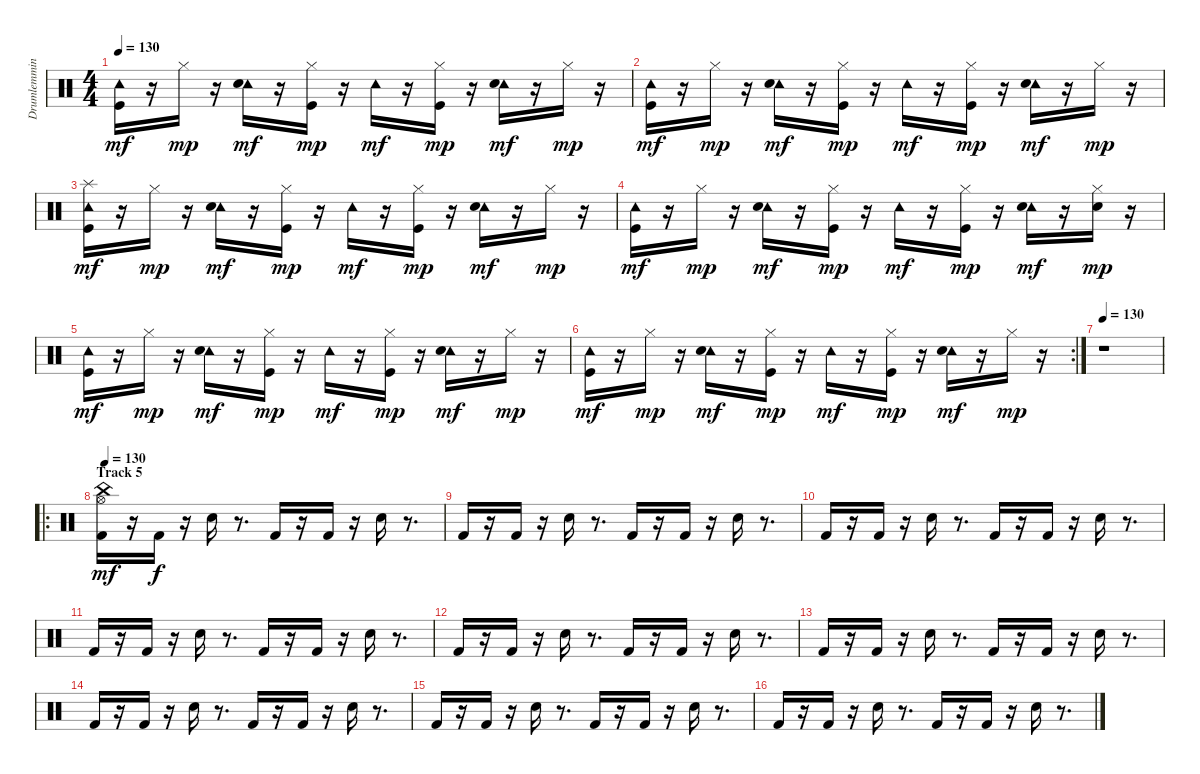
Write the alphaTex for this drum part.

\track ("Drumlemming" "Drumlemmin") {instrument percussion}
\staff {score}
\articulation defaults
\ts (4 4)
\tempo 130
\clef neutral
\ks c
("Tambourine (hit)" "Kick (hit)").16{dy mf} r.16 "Hi-Hat (closed)".16{dy mp} r.16 ("Tambourine (hit)" "Snare (hit) 2").16{dy mf} r.16 ("Kick (hit)" "Hi-Hat (closed)").16{dy mp} r.16 "Tambourine (hit)".16{dy mf} r.16 ("Kick (hit)" "Hi-Hat (closed)").16{dy mp} r.16 ("Tambourine (hit)" "Snare (hit) 2").16{dy mf} r.16 "Hi-Hat (closed)".16{dy mp} r.16 |
("Tambourine (hit)" "Kick (hit)").16{dy mf} r.16 "Hi-Hat (closed)".16{dy mp} r.16 ("Tambourine (hit)" "Snare (hit) 2").16{dy mf} r.16 ("Kick (hit)" "Hi-Hat (closed)").16{dy mp} r.16 "Tambourine (hit)".16{dy mf} r.16 ("Kick (hit)" "Hi-Hat (closed)").16{dy mp} r.16 ("Tambourine (hit)" "Snare (hit) 2").16{dy mf} r.16 "Hi-Hat (closed)".16{dy mp} r.16 |
("Splash (hit)" "Tambourine (hit)" "Kick (hit)").16{dy mf} r.16 "Hi-Hat (closed)".16{dy mp} r.16 ("Tambourine (hit)" "Snare (hit) 2").16{dy mf} r.16 ("Kick (hit)" "Hi-Hat (closed)").16{dy mp} r.16 "Tambourine (hit)".16{dy mf} r.16 ("Kick (hit)" "Hi-Hat (closed)").16{dy mp} r.16 ("Tambourine (hit)" "Snare (hit) 2").16{dy mf} r.16 "Hi-Hat (closed)".16{dy mp} r.16 |
("Tambourine (hit)" "Kick (hit)").16{dy mf} r.16 "Hi-Hat (closed)".16{dy mp} r.16 ("Tambourine (hit)" "Snare (hit) 2").16{dy mf} r.16 ("Kick (hit)" "Hi-Hat (closed)").16{dy mp} r.16 "Tambourine (hit)".16{dy mf} r.16 ("Kick (hit)" "Hi-Hat (closed)").16{dy mp} r.16 ("Tambourine (hit)" "Snare (hit) 2").16{dy mf} r.16 ("Snare (hit) 2" "Hi-Hat (closed)").16{dy mp} r.16 |
("Tambourine (hit)" "Kick (hit)").16{dy mf} r.16 "Hi-Hat (closed)".16{dy mp} r.16 ("Tambourine (hit)" "Snare (hit) 2").16{dy mf} r.16 ("Kick (hit)" "Hi-Hat (closed)").16{dy mp} r.16 "Tambourine (hit)".16{dy mf} r.16 ("Kick (hit)" "Hi-Hat (closed)").16{dy mp} r.16 ("Tambourine (hit)" "Snare (hit) 2").16{dy mf} r.16 "Hi-Hat (closed)".16{dy mp} r.16 |
\rc 2
("Tambourine (hit)" "Kick (hit)").16{dy mf} r.16 "Hi-Hat (closed)".16{dy mp} r.16 ("Tambourine (hit)" "Snare (hit) 2").16{dy mf} r.16 ("Kick (hit)" "Hi-Hat (closed)").16{dy mp} r.16 "Tambourine (hit)".16{dy mf} r.16 ("Kick (hit)" "Hi-Hat (closed)").16{dy mp} r.16 ("Tambourine (hit)" "Snare (hit) 2").16{dy mf} r.16 "Hi-Hat (closed)".16{dy mp} r.16 |
\tempo 130
r.1 |
\ro
\section ("" "Track 5")
\tempo 130
("Hi-Hat (open)" "China (hit)" "Kick (hit) 2").16{dy mf} r.16 "Kick (hit) 2".16{dy f} r.16 "Snare (hit) 2".16 r.8{d} "Kick (hit) 2".16 r.16 "Kick (hit) 2".16 r.16 "Snare (hit) 2".16 r.8{d} |
"Kick (hit) 2".16 r.16 "Kick (hit) 2".16 r.16 "Snare (hit) 2".16 r.8{d} "Kick (hit) 2".16 r.16 "Kick (hit) 2".16 r.16 "Snare (hit) 2".16 r.8{d} |
"Kick (hit) 2".16 r.16 "Kick (hit) 2".16 r.16 "Snare (hit) 2".16 r.8{d} "Kick (hit) 2".16 r.16 "Kick (hit) 2".16 r.16 "Snare (hit) 2".16 r.8{d} |
"Kick (hit) 2".16 r.16 "Kick (hit) 2".16 r.16 "Snare (hit) 2".16 r.8{d} "Kick (hit) 2".16 r.16 "Kick (hit) 2".16 r.16 "Snare (hit) 2".16 r.8{d} |
"Kick (hit) 2".16 r.16 "Kick (hit) 2".16 r.16 "Snare (hit) 2".16 r.8{d} "Kick (hit) 2".16 r.16 "Kick (hit) 2".16 r.16 "Snare (hit) 2".16 r.8{d} |
"Kick (hit) 2".16 r.16 "Kick (hit) 2".16 r.16 "Snare (hit) 2".16 r.8{d} "Kick (hit) 2".16 r.16 "Kick (hit) 2".16 r.16 "Snare (hit) 2".16 r.8{d} |
"Kick (hit) 2".16 r.16 "Kick (hit) 2".16 r.16 "Snare (hit) 2".16 r.8{d} "Kick (hit) 2".16 r.16 "Kick (hit) 2".16 r.16 "Snare (hit) 2".16 r.8{d} |
"Kick (hit) 2".16 r.16 "Kick (hit) 2".16 r.16 "Snare (hit) 2".16 r.8{d} "Kick (hit) 2".16 r.16 "Kick (hit) 2".16 r.16 "Snare (hit) 2".16 r.8{d} |
"Kick (hit) 2".16 r.16 "Kick (hit) 2".16 r.16 "Snare (hit) 2".16 r.8{d} "Kick (hit) 2".16 r.16 "Kick (hit) 2".16 r.16 "Snare (hit) 2".16 r.8{d}
